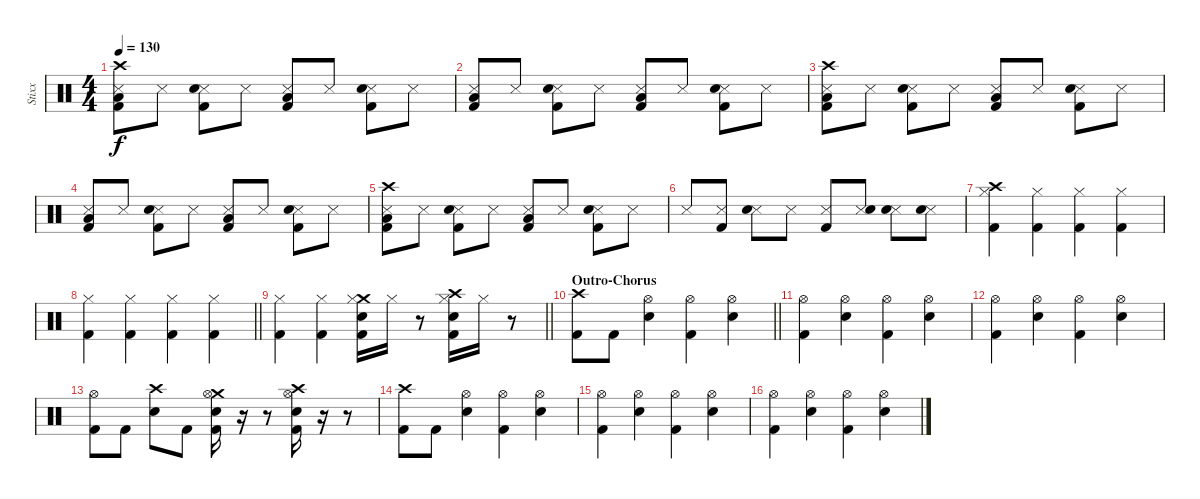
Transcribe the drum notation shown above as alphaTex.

\track ("Stixx" "Stixx") {instrument percussion}
\staff {score}
\articulation defaults
\ts (4 4)
\tempo 130
\clef neutral
\ks c
("Crash high (hit)" "Snare (side stick) 3" "Low Floor Tom (hit)" "Kick (hit) 2").8{dy f} "Snare (side stick) 3".8 ("Snare (side stick) 3" "Snare (hit) 2" "Kick (hit) 2").8 "Snare (side stick) 3".8 ("Snare (side stick) 3" "Low Floor Tom (hit)" "Kick (hit) 2").8 "Snare (side stick) 3".8 ("Snare (side stick) 3" "Snare (hit) 2" "Kick (hit) 2").8 "Snare (side stick) 3".8 |
("Snare (side stick) 3" "Low Floor Tom (hit)" "Kick (hit) 2").8 "Snare (side stick) 3".8 ("Snare (side stick) 3" "Snare (hit) 2" "Kick (hit) 2").8 "Snare (side stick) 3".8 ("Snare (side stick) 3" "Low Floor Tom (hit)" "Kick (hit) 2").8 "Snare (side stick) 3".8 ("Snare (side stick) 3" "Snare (hit) 2" "Kick (hit) 2").8 "Snare (side stick) 3".8 |
("Crash high (hit)" "Snare (side stick) 3" "Low Floor Tom (hit)" "Kick (hit) 2").8 "Snare (side stick) 3".8 ("Snare (side stick) 3" "Snare (hit) 2" "Kick (hit) 2").8 "Snare (side stick) 3".8 ("Snare (side stick) 3" "Low Floor Tom (hit)" "Kick (hit) 2").8 "Snare (side stick) 3".8 ("Snare (side stick) 3" "Snare (hit) 2" "Kick (hit) 2").8 "Snare (side stick) 3".8 |
("Snare (side stick) 3" "Low Floor Tom (hit)" "Kick (hit) 2").8 "Snare (side stick) 3".8 ("Snare (side stick) 3" "Snare (hit) 2" "Kick (hit) 2").8 "Snare (side stick) 3".8 ("Snare (side stick) 3" "Low Floor Tom (hit)" "Kick (hit) 2").8 "Snare (side stick) 3".8 ("Snare (side stick) 3" "Snare (hit) 2" "Kick (hit) 2").8 "Snare (side stick) 3".8 |
("Crash high (hit)" "Snare (side stick) 3" "Low Floor Tom (hit)" "Kick (hit) 2").8 "Snare (side stick) 3".8 ("Snare (side stick) 3" "Snare (hit) 2" "Kick (hit) 2").8 "Snare (side stick) 3".8 ("Snare (side stick) 3" "Low Floor Tom (hit)" "Kick (hit) 2").8 "Snare (side stick) 3".8 ("Snare (side stick) 3" "Snare (hit) 2" "Kick (hit) 2").8 "Snare (side stick) 3".8 |
"Snare (side stick) 3".8 ("Snare (side stick) 3" "Kick (hit) 2").8 ("Snare (side stick) 3" "Snare (hit) 2").8 "Snare (side stick) 3".8 ("Snare (side stick) 3" "Kick (hit) 2").8 ("Snare (side stick) 3" "Snare (hit) 2").8 ("Snare (side stick) 3" "Snare (hit) 2").8 ("Snare (side stick) 3" "Snare (hit) 2").8 |
("Crash high (hit)" "Hi-Hat (closed)" "Kick (hit) 2").4 ("Hi-Hat (closed)" "Kick (hit) 2").4 ("Hi-Hat (closed)" "Kick (hit) 2").4 ("Hi-Hat (closed)" "Kick (hit) 2").4 |
\barLineRight lightlight
("Hi-Hat (closed)" "Kick (hit) 2").4 ("Hi-Hat (closed)" "Kick (hit) 2").4 ("Hi-Hat (closed)" "Kick (hit) 2").4 ("Hi-Hat (closed)" "Kick (hit) 2").4 |
\barLineRight lightlight
("Hi-Hat (closed)" "Kick (hit) 2").4 ("Hi-Hat (closed)" "Kick (hit) 2").4 ("Crash medium (hit)" "Snare (hit) 2" "Hi-Hat (closed)" "Kick (hit) 2").16 "Hi-Hat (closed)".16 r.8 ("Crash high (hit)" "Snare (hit) 2" "Hi-Hat (closed)" "Kick (hit) 2").16 "Hi-Hat (closed)".16 r.8 |
\section ("" "Outro-Chorus")
\barLineRight lightlight
("Crash high (hit)" "Kick (hit) 2").8 "Kick (hit) 2".8 ("Hi-Hat (open)" "Snare (hit) 2").4 ("Hi-Hat (open)" "Kick (hit) 2").4 ("Hi-Hat (open)" "Snare (hit) 2").4 |
("Hi-Hat (open)" "Kick (hit) 2").4 ("Hi-Hat (open)" "Snare (hit) 2").4 ("Hi-Hat (open)" "Kick (hit) 2").4 ("Hi-Hat (open)" "Snare (hit) 2").4 |
("Hi-Hat (open)" "Kick (hit) 2").4 ("Hi-Hat (open)" "Snare (hit) 2").4 ("Hi-Hat (open)" "Kick (hit) 2").4 ("Hi-Hat (open)" "Snare (hit) 2").4 |
("Hi-Hat (open)" "Kick (hit) 2").8 "Kick (hit) 2".8 ("Crash high (hit)" "Snare (hit) 2").8 "Kick (hit) 2".8 ("Crash medium (hit)" "Snare (hit) 2" "Hi-Hat (open)" "Kick (hit) 2").16 r.16 r.8 ("Crash high (hit)" "Snare (hit) 2" "Hi-Hat (open)" "Kick (hit) 2").16 r.16 r.8 |
("Crash high (hit)" "Kick (hit) 2").8 "Kick (hit) 2".8 ("Hi-Hat (open)" "Snare (hit) 2").4 ("Hi-Hat (open)" "Kick (hit) 2").4 ("Hi-Hat (open)" "Snare (hit) 2").4 |
("Hi-Hat (open)" "Kick (hit) 2").4 ("Hi-Hat (open)" "Snare (hit) 2").4 ("Hi-Hat (open)" "Kick (hit) 2").4 ("Hi-Hat (open)" "Snare (hit) 2").4 |
("Hi-Hat (open)" "Kick (hit) 2").4 ("Hi-Hat (open)" "Snare (hit) 2").4 ("Hi-Hat (open)" "Kick (hit) 2").4 ("Hi-Hat (open)" "Snare (hit) 2").4
